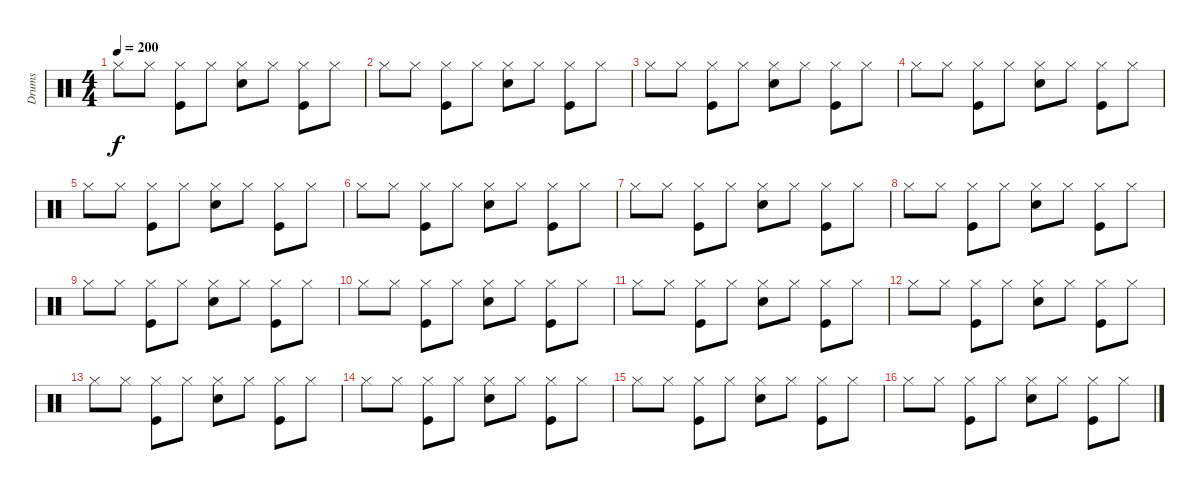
\track ("Drums" "Drums") {instrument percussion}
\staff {score}
\articulation defaults
\ts (4 4)
\tempo 200
\clef neutral
\ks c "Hi-Hat (closed)".8{dy f} "Hi-Hat (closed)".8
("Kick (hit)" "Hi-Hat (closed)").8 "Hi-Hat (closed)".8 ("Electric Snare (hit)" "Hi-Hat (closed)").8 "Hi-Hat (closed)".8 ("Hi-Hat (closed)" "Kick (hit)").8 "Hi-Hat (closed)".8 |
"Hi-Hat (closed)".8 "Hi-Hat (closed)".8 ("Kick (hit)" "Hi-Hat (closed)").8 "Hi-Hat (closed)".8 ("Electric Snare (hit)" "Hi-Hat (closed)").8 "Hi-Hat (closed)".8 ("Hi-Hat (closed)" "Kick (hit)").8 "Hi-Hat (closed)".8 |
"Hi-Hat (closed)".8 "Hi-Hat (closed)".8 ("Kick (hit)" "Hi-Hat (closed)").8 "Hi-Hat (closed)".8 ("Electric Snare (hit)" "Hi-Hat (closed)").8 "Hi-Hat (closed)".8 ("Hi-Hat (closed)" "Kick (hit)").8 "Hi-Hat (closed)".8 |
"Hi-Hat (closed)".8 "Hi-Hat (closed)".8 ("Kick (hit)" "Hi-Hat (closed)").8 "Hi-Hat (closed)".8 ("Electric Snare (hit)" "Hi-Hat (closed)").8 "Hi-Hat (closed)".8 ("Hi-Hat (closed)" "Kick (hit)").8 "Hi-Hat (closed)".8 |
"Hi-Hat (closed)".8 "Hi-Hat (closed)".8 ("Kick (hit)" "Hi-Hat (closed)").8 "Hi-Hat (closed)".8 ("Electric Snare (hit)" "Hi-Hat (closed)").8 "Hi-Hat (closed)".8 ("Hi-Hat (closed)" "Kick (hit)").8 "Hi-Hat (closed)".8 |
"Hi-Hat (closed)".8 "Hi-Hat (closed)".8 ("Kick (hit)" "Hi-Hat (closed)").8 "Hi-Hat (closed)".8 ("Electric Snare (hit)" "Hi-Hat (closed)").8 "Hi-Hat (closed)".8 ("Hi-Hat (closed)" "Kick (hit)").8 "Hi-Hat (closed)".8 |
"Hi-Hat (closed)".8 "Hi-Hat (closed)".8 ("Kick (hit)" "Hi-Hat (closed)").8 "Hi-Hat (closed)".8 ("Electric Snare (hit)" "Hi-Hat (closed)").8 "Hi-Hat (closed)".8 ("Hi-Hat (closed)" "Kick (hit)").8 "Hi-Hat (closed)".8 |
"Hi-Hat (closed)".8 "Hi-Hat (closed)".8 ("Kick (hit)" "Hi-Hat (closed)").8 "Hi-Hat (closed)".8 ("Electric Snare (hit)" "Hi-Hat (closed)").8 "Hi-Hat (closed)".8 ("Hi-Hat (closed)" "Kick (hit)").8 "Hi-Hat (closed)".8 |
"Hi-Hat (closed)".8 "Hi-Hat (closed)".8 ("Kick (hit)" "Hi-Hat (closed)").8 "Hi-Hat (closed)".8 ("Electric Snare (hit)" "Hi-Hat (closed)").8 "Hi-Hat (closed)".8 ("Hi-Hat (closed)" "Kick (hit)").8 "Hi-Hat (closed)".8 |
"Hi-Hat (closed)".8 "Hi-Hat (closed)".8 ("Kick (hit)" "Hi-Hat (closed)").8 "Hi-Hat (closed)".8 ("Electric Snare (hit)" "Hi-Hat (closed)").8 "Hi-Hat (closed)".8 ("Hi-Hat (closed)" "Kick (hit)").8 "Hi-Hat (closed)".8 |
"Hi-Hat (closed)".8 "Hi-Hat (closed)".8 ("Kick (hit)" "Hi-Hat (closed)").8 "Hi-Hat (closed)".8 ("Electric Snare (hit)" "Hi-Hat (closed)").8 "Hi-Hat (closed)".8 ("Hi-Hat (closed)" "Kick (hit)").8 "Hi-Hat (closed)".8 |
"Hi-Hat (closed)".8 "Hi-Hat (closed)".8 ("Kick (hit)" "Hi-Hat (closed)").8 "Hi-Hat (closed)".8 ("Electric Snare (hit)" "Hi-Hat (closed)").8 "Hi-Hat (closed)".8 ("Hi-Hat (closed)" "Kick (hit)").8 "Hi-Hat (closed)".8 |
"Hi-Hat (closed)".8 "Hi-Hat (closed)".8 ("Kick (hit)" "Hi-Hat (closed)").8 "Hi-Hat (closed)".8 ("Electric Snare (hit)" "Hi-Hat (closed)").8 "Hi-Hat (closed)".8 ("Hi-Hat (closed)" "Kick (hit)").8 "Hi-Hat (closed)".8 |
"Hi-Hat (closed)".8 "Hi-Hat (closed)".8 ("Kick (hit)" "Hi-Hat (closed)").8 "Hi-Hat (closed)".8 ("Electric Snare (hit)" "Hi-Hat (closed)").8 "Hi-Hat (closed)".8 ("Hi-Hat (closed)" "Kick (hit)").8 "Hi-Hat (closed)".8 |
"Hi-Hat (closed)".8 "Hi-Hat (closed)".8 ("Kick (hit)" "Hi-Hat (closed)").8 "Hi-Hat (closed)".8 ("Electric Snare (hit)" "Hi-Hat (closed)").8 "Hi-Hat (closed)".8 ("Hi-Hat (closed)" "Kick (hit)").8 "Hi-Hat (closed)".8 |
"Hi-Hat (closed)".8 "Hi-Hat (closed)".8 ("Kick (hit)" "Hi-Hat (closed)").8 "Hi-Hat (closed)".8 ("Electric Snare (hit)" "Hi-Hat (closed)").8 "Hi-Hat (closed)".8 ("Hi-Hat (closed)" "Kick (hit)").8 "Hi-Hat (closed)".8
